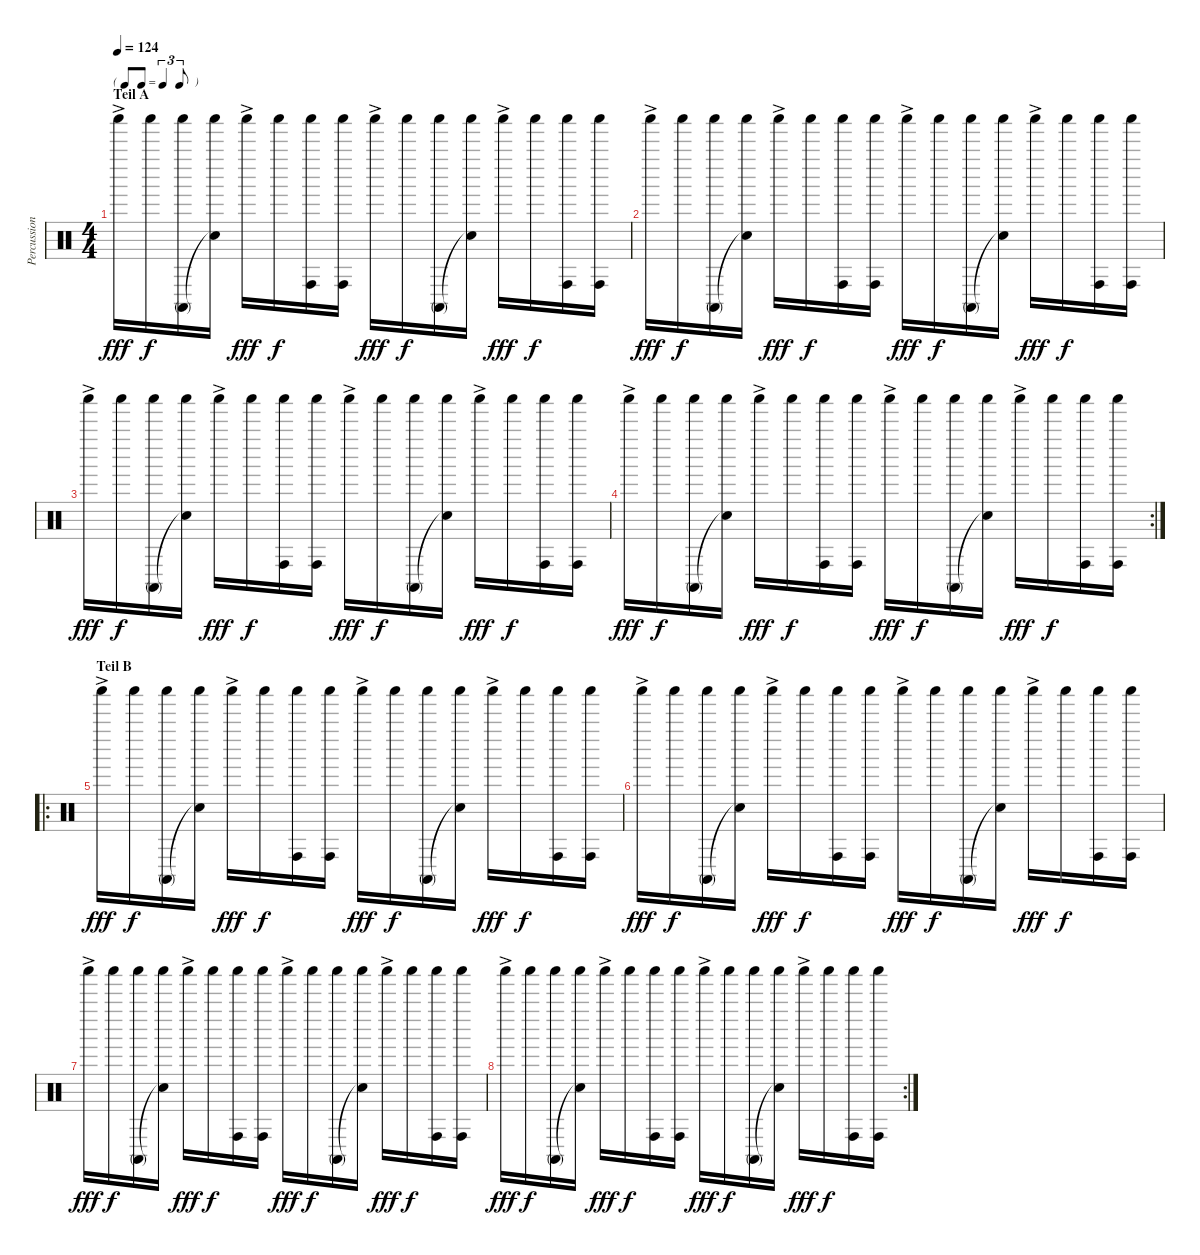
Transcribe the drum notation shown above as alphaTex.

\track ("Percussion" "Percussion") {instrument percussion}
\staff {score}
\articulation defaults
\ts (4 4)
\tf triplet8th
\section ("" "Teil A")
\tempo 124
\clef neutral
\ks c "Shaker (hit)"{ac}.16{dy fff} "Shaker (hit)".16{dy f}
("Shaker (hit)" "Conga high (mute)").16 ("Shaker (hit)" "Snare (hit)"{t}).16 "Shaker (hit)"{ac}.16{dy fff} "Shaker (hit)".16{dy f} ("Shaker (hit)" "Conga high (hit)").16 ("Shaker (hit)" "Conga high (hit)").16 "Shaker (hit)"{ac}.16{dy fff} "Shaker (hit)".16{dy f} ("Shaker (hit)" "Conga high (mute)").16 ("Shaker (hit)" "Snare (hit)"{t}).16 "Shaker (hit)"{ac}.16{dy fff} "Shaker (hit)".16{dy f} ("Shaker (hit)" "Conga high (hit)").16 ("Shaker (hit)" "Conga high (hit)").16 |
"Shaker (hit)"{ac}.16{dy fff} "Shaker (hit)".16{dy f} ("Shaker (hit)" "Conga high (mute)").16 ("Shaker (hit)" "Snare (hit)"{t}).16 "Shaker (hit)"{ac}.16{dy fff} "Shaker (hit)".16{dy f} ("Shaker (hit)" "Conga high (hit)").16 ("Shaker (hit)" "Conga high (hit)").16 "Shaker (hit)"{ac}.16{dy fff} "Shaker (hit)".16{dy f} ("Shaker (hit)" "Conga high (mute)").16 ("Shaker (hit)" "Snare (hit)"{t}).16 "Shaker (hit)"{ac}.16{dy fff} "Shaker (hit)".16{dy f} ("Shaker (hit)" "Conga high (hit)").16 ("Shaker (hit)" "Conga high (hit)").16 |
"Shaker (hit)"{ac}.16{dy fff} "Shaker (hit)".16{dy f} ("Shaker (hit)" "Conga high (mute)").16 ("Shaker (hit)" "Snare (hit)"{t}).16 "Shaker (hit)"{ac}.16{dy fff} "Shaker (hit)".16{dy f} ("Shaker (hit)" "Conga high (hit)").16 ("Shaker (hit)" "Conga high (hit)").16 "Shaker (hit)"{ac}.16{dy fff} "Shaker (hit)".16{dy f} ("Shaker (hit)" "Conga high (mute)").16 ("Shaker (hit)" "Snare (hit)"{t}).16 "Shaker (hit)"{ac}.16{dy fff} "Shaker (hit)".16{dy f} ("Shaker (hit)" "Conga high (hit)").16 ("Shaker (hit)" "Conga high (hit)").16 |
\rc 2 "Shaker (hit)"{ac}.16{dy fff} "Shaker (hit)".16{dy f}
("Shaker (hit)" "Conga high (mute)").16 ("Shaker (hit)" "Snare (hit)"{t}).16 "Shaker (hit)"{ac}.16{dy fff} "Shaker (hit)".16{dy f} ("Shaker (hit)" "Conga high (hit)").16 ("Shaker (hit)" "Conga high (hit)").16 "Shaker (hit)"{ac}.16{dy fff} "Shaker (hit)".16{dy f} ("Shaker (hit)" "Conga high (mute)").16 ("Shaker (hit)" "Snare (hit)"{t}).16 "Shaker (hit)"{ac}.16{dy fff} "Shaker (hit)".16{dy f} ("Shaker (hit)" "Conga high (hit)").16 ("Shaker (hit)" "Conga high (hit)").16 |
\ro
\section ("" "Teil B")
"Shaker (hit)"{ac}.16{dy fff} "Shaker (hit)".16{dy f} ("Shaker (hit)" "Conga high (mute)").16 ("Shaker (hit)" "Snare (hit)"{t}).16 "Shaker (hit)"{ac}.16{dy fff} "Shaker (hit)".16{dy f} ("Shaker (hit)" "Conga high (hit)").16 ("Shaker (hit)" "Conga high (hit)").16 "Shaker (hit)"{ac}.16{dy fff} "Shaker (hit)".16{dy f} ("Shaker (hit)" "Conga high (mute)").16 ("Shaker (hit)" "Snare (hit)"{t}).16 "Shaker (hit)"{ac}.16{dy fff} "Shaker (hit)".16{dy f} ("Shaker (hit)" "Conga high (hit)").16 ("Shaker (hit)" "Conga high (hit)").16 |
"Shaker (hit)"{ac}.16{dy fff} "Shaker (hit)".16{dy f} ("Shaker (hit)" "Conga high (mute)").16 ("Shaker (hit)" "Snare (hit)"{t}).16 "Shaker (hit)"{ac}.16{dy fff} "Shaker (hit)".16{dy f} ("Shaker (hit)" "Conga high (hit)").16 ("Shaker (hit)" "Conga high (hit)").16 "Shaker (hit)"{ac}.16{dy fff} "Shaker (hit)".16{dy f} ("Shaker (hit)" "Conga high (mute)").16 ("Shaker (hit)" "Snare (hit)"{t}).16 "Shaker (hit)"{ac}.16{dy fff} "Shaker (hit)".16{dy f} ("Shaker (hit)" "Conga high (hit)").16 ("Shaker (hit)" "Conga high (hit)").16 |
"Shaker (hit)"{ac}.16{dy fff} "Shaker (hit)".16{dy f} ("Shaker (hit)" "Conga high (mute)").16 ("Shaker (hit)" "Snare (hit)"{t}).16 "Shaker (hit)"{ac}.16{dy fff} "Shaker (hit)".16{dy f} ("Shaker (hit)" "Conga high (hit)").16 ("Shaker (hit)" "Conga high (hit)").16 "Shaker (hit)"{ac}.16{dy fff} "Shaker (hit)".16{dy f} ("Shaker (hit)" "Conga high (mute)").16 ("Shaker (hit)" "Snare (hit)"{t}).16 "Shaker (hit)"{ac}.16{dy fff} "Shaker (hit)".16{dy f} ("Shaker (hit)" "Conga high (hit)").16 ("Shaker (hit)" "Conga high (hit)").16 |
\rc 2 "Shaker (hit)"{ac}.16{dy fff} "Shaker (hit)".16{dy f}
("Shaker (hit)" "Conga high (mute)").16 ("Shaker (hit)" "Snare (hit)"{t}).16 "Shaker (hit)"{ac}.16{dy fff} "Shaker (hit)".16{dy f} ("Shaker (hit)" "Conga high (hit)").16 ("Shaker (hit)" "Conga high (hit)").16 "Shaker (hit)"{ac}.16{dy fff} "Shaker (hit)".16{dy f} ("Shaker (hit)" "Conga high (mute)").16 ("Shaker (hit)" "Snare (hit)"{t}).16 "Shaker (hit)"{ac}.16{dy fff} "Shaker (hit)".16{dy f} ("Shaker (hit)" "Conga high (hit)").16 ("Shaker (hit)" "Conga high (hit)").16
